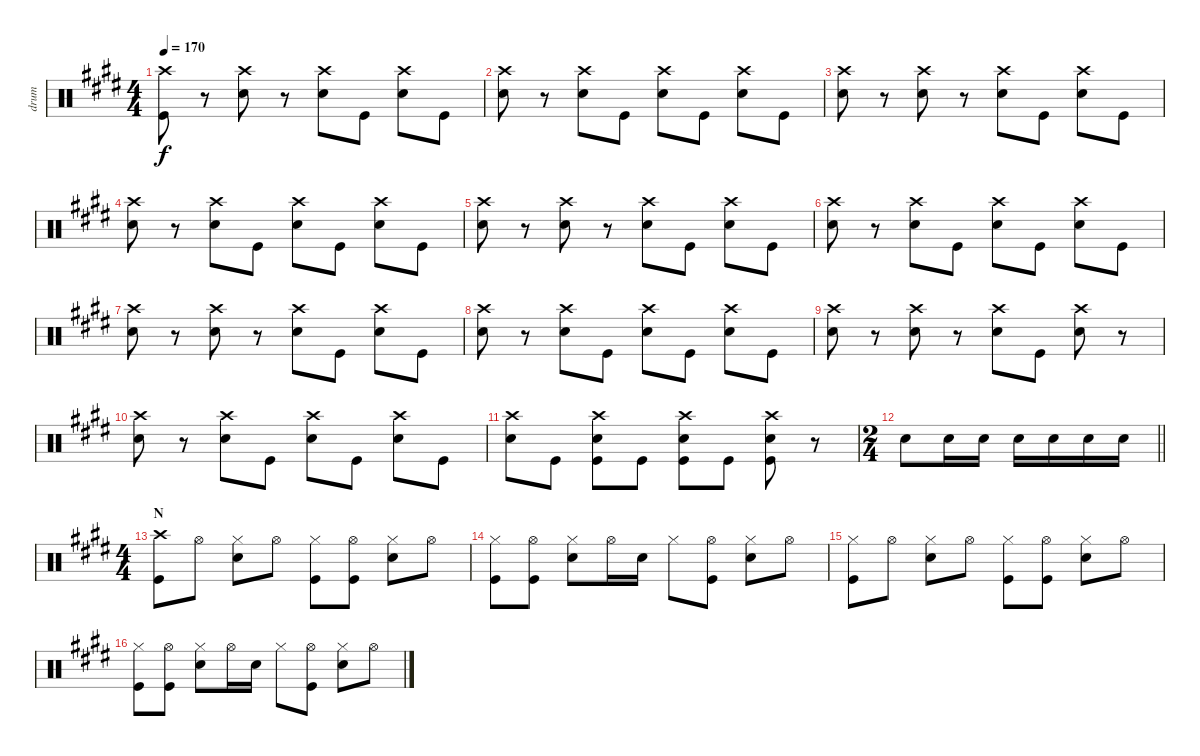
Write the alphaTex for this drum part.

\track ("drum" "drum") {instrument percussion}
\staff {score}
\articulation defaults
\ts (4 4)
\tempo 170
\clef neutral
\ks e
("Crash high (hit)" "Kick (hit)").8{dy f} r.8 ("Crash high (hit)" "Snare (hit) 2").8 r.8 ("Crash high (hit)" "Snare (hit) 2").8 "Kick (hit)".8 ("Crash high (hit)" "Snare (hit) 2").8 "Kick (hit)".8 |
("Crash high (hit)" "Snare (hit) 2").8 r.8 ("Crash high (hit)" "Snare (hit) 2").8 "Kick (hit)".8 ("Crash high (hit)" "Snare (hit) 2").8 "Kick (hit)".8 ("Crash high (hit)" "Snare (hit) 2").8 "Kick (hit)".8 |
("Crash high (hit)" "Snare (hit) 2").8 r.8 ("Crash high (hit)" "Snare (hit) 2").8 r.8 ("Crash high (hit)" "Snare (hit) 2").8 "Kick (hit)".8 ("Crash high (hit)" "Snare (hit) 2").8 "Kick (hit)".8 |
("Crash high (hit)" "Snare (hit) 2").8 r.8 ("Crash high (hit)" "Snare (hit) 2").8 "Kick (hit)".8 ("Crash high (hit)" "Snare (hit) 2").8 "Kick (hit)".8 ("Crash high (hit)" "Snare (hit) 2").8 "Kick (hit)".8 |
("Crash high (hit)" "Snare (hit) 2").8 r.8 ("Crash high (hit)" "Snare (hit) 2").8 r.8 ("Crash high (hit)" "Snare (hit) 2").8 "Kick (hit)".8 ("Crash high (hit)" "Snare (hit) 2").8 "Kick (hit)".8 |
("Crash high (hit)" "Snare (hit) 2").8 r.8 ("Crash high (hit)" "Snare (hit) 2").8 "Kick (hit)".8 ("Crash high (hit)" "Snare (hit) 2").8 "Kick (hit)".8 ("Crash high (hit)" "Snare (hit) 2").8 "Kick (hit)".8 |
("Crash high (hit)" "Snare (hit) 2").8 r.8 ("Crash high (hit)" "Snare (hit) 2").8 r.8 ("Crash high (hit)" "Snare (hit) 2").8 "Kick (hit)".8 ("Crash high (hit)" "Snare (hit) 2").8 "Kick (hit)".8 |
("Crash high (hit)" "Snare (hit) 2").8 r.8 ("Crash high (hit)" "Snare (hit) 2").8 "Kick (hit)".8 ("Crash high (hit)" "Snare (hit) 2").8 "Kick (hit)".8 ("Crash high (hit)" "Snare (hit) 2").8 "Kick (hit)".8 |
("Crash high (hit)" "Snare (hit) 2").8 r.8 ("Crash high (hit)" "Snare (hit) 2").8 r.8 ("Crash high (hit)" "Snare (hit) 2").8 "Kick (hit)".8 ("Crash high (hit)" "Snare (hit) 2").8 r.8 |
("Crash high (hit)" "Snare (hit) 2").8 r.8 ("Crash high (hit)" "Snare (hit) 2").8 "Kick (hit)".8 ("Crash high (hit)" "Snare (hit) 2").8 "Kick (hit)".8 ("Crash high (hit)" "Snare (hit) 2").8 "Kick (hit)".8 |
("Crash high (hit)" "Snare (hit) 2").8 "Kick (hit)".8 ("Crash high (hit)" "Snare (hit) 2" "Kick (hit)").8 "Kick (hit)".8 ("Crash high (hit)" "Snare (hit) 2" "Kick (hit)").8 "Kick (hit)".8 ("Crash high (hit)" "Snare (hit) 2" "Kick (hit)").8 r.8 |
\ts (2 4)
\barLineRight lightlight "Snare (hit) 2".8 "Snare (hit) 2".16 "Snare (hit) 2".16 "Snare (hit) 2".16 "Snare (hit) 2".16 "Snare (hit) 2".16 "Snare (hit) 2".16
|
\ts (4 4)
\section ("" "N")
("Crash high (hit)" "Kick (hit)").8 "Hi-Hat (open)".8 ("Hi-Hat (closed)" "Snare (hit) 2").8 "Hi-Hat (open)".8 ("Hi-Hat (closed)" "Kick (hit)").8 ("Hi-Hat (open)" "Kick (hit)").8 ("Hi-Hat (closed)" "Snare (hit) 2").8 "Hi-Hat (open)".8 |
("Hi-Hat (closed)" "Kick (hit)").8 ("Hi-Hat (open)" "Kick (hit)").8 ("Hi-Hat (closed)" "Snare (hit) 2").8 "Hi-Hat (open)".16 "Snare (hit) 2".16 "Hi-Hat (closed)".8 ("Hi-Hat (open)" "Kick (hit)").8 ("Hi-Hat (closed)" "Snare (hit) 2").8 "Hi-Hat (open)".8 |
("Hi-Hat (closed)" "Kick (hit)").8 "Hi-Hat (open)".8 ("Hi-Hat (closed)" "Snare (hit) 2").8 "Hi-Hat (open)".8 ("Hi-Hat (closed)" "Kick (hit)").8 ("Hi-Hat (open)" "Kick (hit)").8 ("Hi-Hat (closed)" "Snare (hit) 2").8 "Hi-Hat (open)".8 |
("Hi-Hat (closed)" "Kick (hit)").8 ("Hi-Hat (open)" "Kick (hit)").8 ("Hi-Hat (closed)" "Snare (hit) 2").8 "Hi-Hat (open)".16 "Snare (hit) 2".16 "Hi-Hat (closed)".8 ("Hi-Hat (open)" "Kick (hit)").8 ("Hi-Hat (closed)" "Snare (hit) 2").8 "Hi-Hat (open)".8
